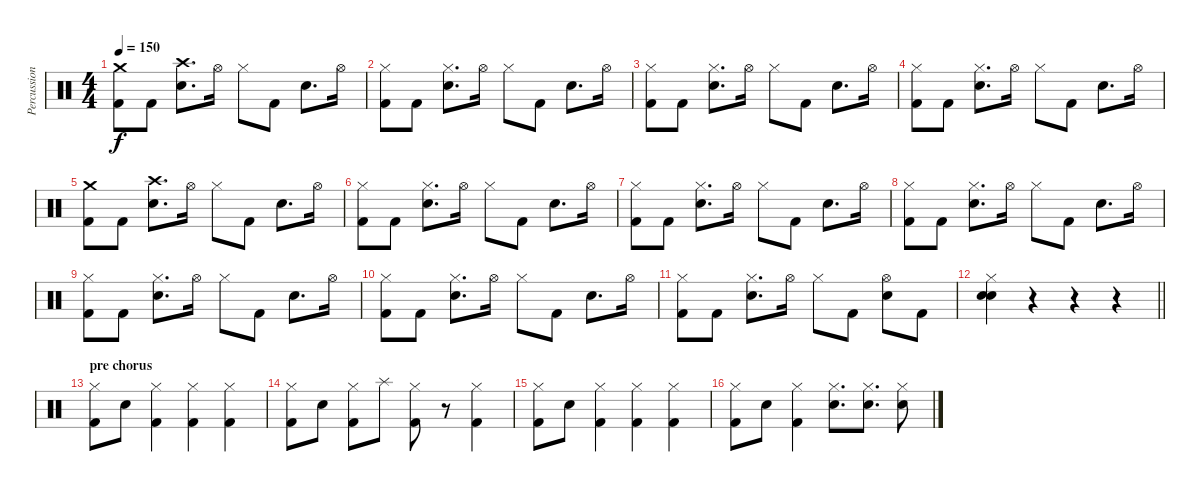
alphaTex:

\track ("Percussion" "Percussion") {instrument percussion}
\staff {score}
\articulation defaults
\ts (4 4)
\tempo 150
\clef neutral
\ks c
("Crash medium (hit)" "Kick (hit) 2").8{dy f} "Kick (hit) 2".8 ("Crash high (hit)" "Electric Snare (hit)").8{d} "Hi-Hat (open)".16 "Hi-Hat (closed)".8 "Kick (hit) 2".8 "Electric Snare (hit)".8{d} "Hi-Hat (open)".16 |
("Hi-Hat (closed)" "Kick (hit) 2").8 "Kick (hit) 2".8 ("Hi-Hat (closed)" "Electric Snare (hit)").8{d} "Hi-Hat (open)".16 "Hi-Hat (closed)".8 "Kick (hit) 2".8 "Electric Snare (hit)".8{d} "Hi-Hat (open)".16 |
("Hi-Hat (closed)" "Kick (hit) 2").8 "Kick (hit) 2".8 ("Hi-Hat (closed)" "Electric Snare (hit)").8{d} "Hi-Hat (open)".16 "Hi-Hat (closed)".8 "Kick (hit) 2".8 "Electric Snare (hit)".8{d} "Hi-Hat (open)".16 |
("Hi-Hat (closed)" "Kick (hit) 2").8 "Kick (hit) 2".8 ("Hi-Hat (closed)" "Electric Snare (hit)").8{d} "Hi-Hat (open)".16 "Hi-Hat (closed)".8 "Kick (hit) 2".8 "Electric Snare (hit)".8{d} "Hi-Hat (open)".16 |
("Crash medium (hit)" "Kick (hit) 2").8 "Kick (hit) 2".8 ("Crash high (hit)" "Electric Snare (hit)").8{d} "Hi-Hat (open)".16 "Hi-Hat (closed)".8 "Kick (hit) 2".8 "Electric Snare (hit)".8{d} "Hi-Hat (open)".16 |
("Hi-Hat (closed)" "Kick (hit) 2").8 "Kick (hit) 2".8 ("Hi-Hat (closed)" "Electric Snare (hit)").8{d} "Hi-Hat (open)".16 "Hi-Hat (closed)".8 "Kick (hit) 2".8 "Electric Snare (hit)".8{d} "Hi-Hat (open)".16 |
("Hi-Hat (closed)" "Kick (hit) 2").8 "Kick (hit) 2".8 ("Hi-Hat (closed)" "Electric Snare (hit)").8{d} "Hi-Hat (open)".16 "Hi-Hat (closed)".8 "Kick (hit) 2".8 "Electric Snare (hit)".8{d} "Hi-Hat (open)".16 |
("Hi-Hat (closed)" "Kick (hit) 2").8 "Kick (hit) 2".8 ("Hi-Hat (closed)" "Electric Snare (hit)").8{d} "Hi-Hat (open)".16 "Hi-Hat (closed)".8 "Kick (hit) 2".8 "Electric Snare (hit)".8{d} "Hi-Hat (open)".16 |
("Hi-Hat (closed)" "Kick (hit) 2").8 "Kick (hit) 2".8 ("Hi-Hat (closed)" "Electric Snare (hit)").8{d} "Hi-Hat (open)".16 "Hi-Hat (closed)".8 "Kick (hit) 2".8 "Electric Snare (hit)".8{d} "Hi-Hat (open)".16 |
("Hi-Hat (closed)" "Kick (hit) 2").8 "Kick (hit) 2".8 ("Hi-Hat (closed)" "Electric Snare (hit)").8{d} "Hi-Hat (open)".16 "Hi-Hat (closed)".8 "Kick (hit) 2".8 "Electric Snare (hit)".8{d} "Hi-Hat (open)".16 |
("Hi-Hat (closed)" "Kick (hit) 2").8 "Kick (hit) 2".8 ("Hi-Hat (closed)" "Electric Snare (hit)").8{d} "Hi-Hat (open)".16 "Hi-Hat (closed)".8 "Kick (hit) 2".8 ("Hi-Hat (open)" "Electric Snare (hit)").8 "Kick (hit) 2".8 |
\barLineRight lightlight
("Hi-Hat (closed)" "Electric Snare (hit)" "Electric Snare (hit)").4 r.4 r.4 r.4 |
\section ("" "pre chorus")
("Hi-Hat (closed)" "Kick (hit) 2").8 "Electric Snare (hit)".8 ("Hi-Hat (closed)" "Kick (hit) 2").4 ("Hi-Hat (closed)" "Kick (hit) 2").4 ("Hi-Hat (closed)" "Kick (hit) 2").4 |
("Hi-Hat (closed)" "Kick (hit) 2").8 "Electric Snare (hit)".8 ("Hi-Hat (closed)" "Kick (hit) 2").8 "Splash (hit)".8 ("Hi-Hat (closed)" "Kick (hit) 2").8 r.8 ("Hi-Hat (closed)" "Kick (hit) 2").4 |
("Hi-Hat (closed)" "Kick (hit) 2").8 "Electric Snare (hit)".8 ("Hi-Hat (closed)" "Kick (hit) 2").4 ("Hi-Hat (closed)" "Kick (hit) 2").4 ("Hi-Hat (closed)" "Kick (hit) 2").4 |
("Hi-Hat (closed)" "Kick (hit) 2").8 "Electric Snare (hit)".8 ("Hi-Hat (closed)" "Kick (hit) 2").4 ("Hi-Hat (closed)" "Electric Snare (hit)").8{d} ("Hi-Hat (closed)" "Electric Snare (hit)").8{d} ("Hi-Hat (closed)" "Electric Snare (hit)").8
